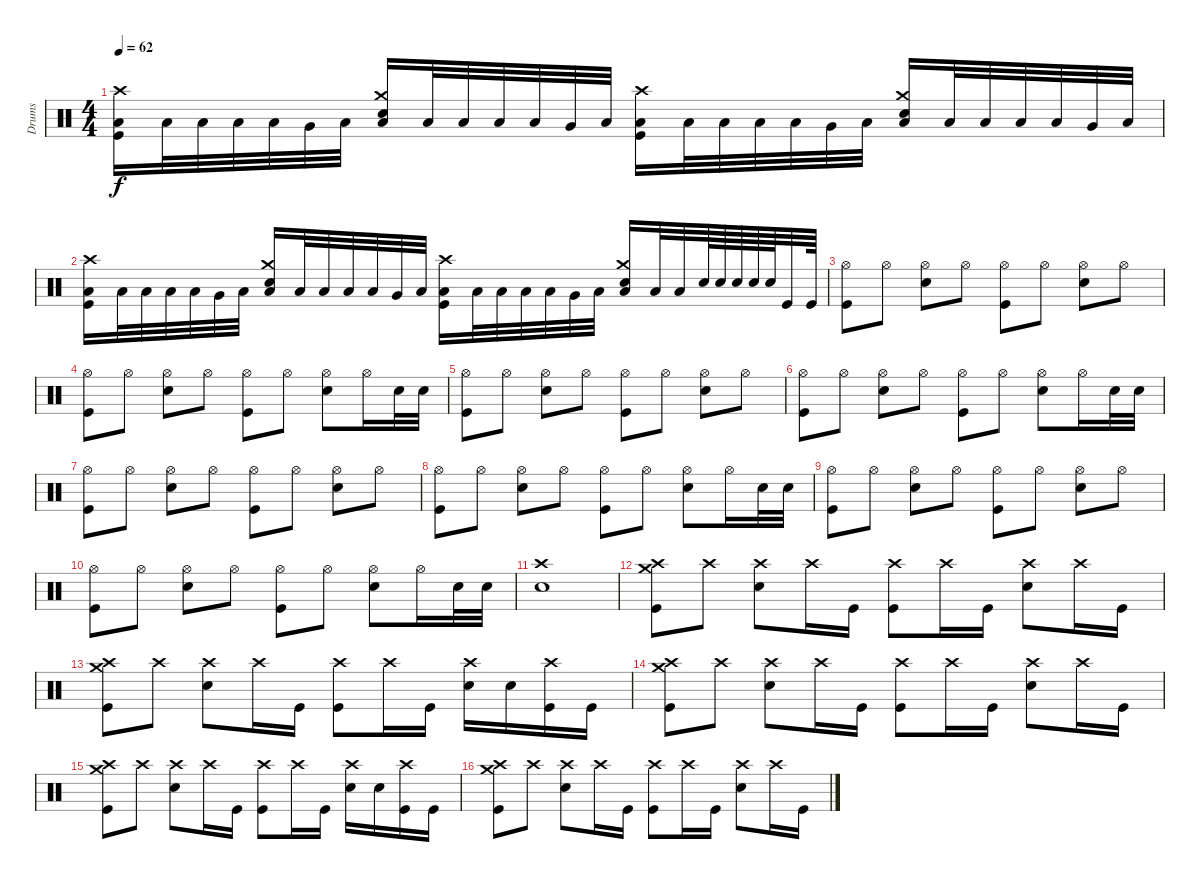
\track ("Drums" "Drums") {instrument percussion}
\staff {score}
\articulation defaults
\ts (4 4)
\tempo 62
\clef neutral
\ks c
("Crash high (hit)" "Low Floor Tom (hit)" "Kick (hit)").16{dy f} "Low Floor Tom (hit)".32 "Low Floor Tom (hit)".32 "Low Tom (hit)".32 "Low Tom (hit)".32 "Very Low Tom (hit)".32 "Low Floor Tom (hit)".32 ("Crash medium (hit)" "Low Floor Tom (hit)" "Snare (hit) 2").16 "Low Floor Tom (hit)".32 "Low Floor Tom (hit)".32 "Low Tom (hit)".32 "Low Tom (hit)".32 "Very Low Tom (hit)".32 "Low Floor Tom (hit)".32 ("Crash high (hit)" "Low Floor Tom (hit)" "Kick (hit)").16 "Low Floor Tom (hit)".32 "Low Floor Tom (hit)".32 "Low Tom (hit)".32 "Low Tom (hit)".32 "Very Low Tom (hit)".32 "Low Floor Tom (hit)".32 ("Crash medium (hit)" "Low Floor Tom (hit)" "Snare (hit) 2").16 "Low Floor Tom (hit)".32 "Low Floor Tom (hit)".32 "Low Tom (hit)".32 "Low Tom (hit)".32 "Very Low Tom (hit)".32 "Low Floor Tom (hit)".32 |
("Crash high (hit)" "Low Floor Tom (hit)" "Kick (hit)").16 "Low Floor Tom (hit)".32 "Low Floor Tom (hit)".32 "Low Tom (hit)".32 "Low Tom (hit)".32 "Very Low Tom (hit)".32 "Low Floor Tom (hit)".32 ("Crash medium (hit)" "Low Floor Tom (hit)" "Snare (hit) 2").16 "Low Floor Tom (hit)".32 "Low Floor Tom (hit)".32 "Low Tom (hit)".32 "Low Tom (hit)".32 "Very Low Tom (hit)".32 "Low Floor Tom (hit)".32 ("Crash high (hit)" "Low Floor Tom (hit)" "Kick (hit)").16 "Low Floor Tom (hit)".32 "Low Floor Tom (hit)".32 "Low Tom (hit)".32 "Low Tom (hit)".32 "Very Low Tom (hit)".32 "Low Floor Tom (hit)".32 ("Crash medium (hit)" "Low Floor Tom (hit)" "Snare (hit) 2").16 "Low Floor Tom (hit)".32 "Low Tom (hit)".32 "Snare (hit) 2".64 "Snare (hit) 2".64 "Snare (hit) 2".64 "Snare (hit) 2".64 "Snare (hit) 2".64 "Kick (hit)".32 "Kick (hit)".64 |
("Hi-Hat (open)" "Kick (hit)").8 "Hi-Hat (open)".8 ("Hi-Hat (open)" "Snare (hit) 2").8 "Hi-Hat (open)".8 ("Hi-Hat (open)" "Kick (hit)").8 "Hi-Hat (open)".8 ("Hi-Hat (open)" "Snare (hit) 2").8 "Hi-Hat (open)".8 |
("Hi-Hat (open)" "Kick (hit)").8 "Hi-Hat (open)".8 ("Hi-Hat (open)" "Snare (hit) 2").8 "Hi-Hat (open)".8 ("Hi-Hat (open)" "Kick (hit)").8 "Hi-Hat (open)".8 ("Hi-Hat (open)" "Snare (hit) 2").8 "Hi-Hat (open)".16 "Snare (hit) 2".32 "Snare (hit) 2".32 |
("Hi-Hat (open)" "Kick (hit)").8 "Hi-Hat (open)".8 ("Hi-Hat (open)" "Snare (hit) 2").8 "Hi-Hat (open)".8 ("Hi-Hat (open)" "Kick (hit)").8 "Hi-Hat (open)".8 ("Hi-Hat (open)" "Snare (hit) 2").8 "Hi-Hat (open)".8 |
("Hi-Hat (open)" "Kick (hit)").8 "Hi-Hat (open)".8 ("Hi-Hat (open)" "Snare (hit) 2").8 "Hi-Hat (open)".8 ("Hi-Hat (open)" "Kick (hit)").8 "Hi-Hat (open)".8 ("Hi-Hat (open)" "Snare (hit) 2").8 "Hi-Hat (open)".16 "Snare (hit) 2".32 "Snare (hit) 2".32 |
("Hi-Hat (open)" "Kick (hit)").8 "Hi-Hat (open)".8 ("Hi-Hat (open)" "Snare (hit) 2").8 "Hi-Hat (open)".8 ("Hi-Hat (open)" "Kick (hit)").8 "Hi-Hat (open)".8 ("Hi-Hat (open)" "Snare (hit) 2").8 "Hi-Hat (open)".8 |
("Hi-Hat (open)" "Kick (hit)").8 "Hi-Hat (open)".8 ("Hi-Hat (open)" "Snare (hit) 2").8 "Hi-Hat (open)".8 ("Hi-Hat (open)" "Kick (hit)").8 "Hi-Hat (open)".8 ("Hi-Hat (open)" "Snare (hit) 2").8 "Hi-Hat (open)".16 "Snare (hit) 2".32 "Snare (hit) 2".32 |
("Hi-Hat (open)" "Kick (hit)").8 "Hi-Hat (open)".8 ("Hi-Hat (open)" "Snare (hit) 2").8 "Hi-Hat (open)".8 ("Hi-Hat (open)" "Kick (hit)").8 "Hi-Hat (open)".8 ("Hi-Hat (open)" "Snare (hit) 2").8 "Hi-Hat (open)".8 |
("Hi-Hat (open)" "Kick (hit)").8 "Hi-Hat (open)".8 ("Hi-Hat (open)" "Snare (hit) 2").8 "Hi-Hat (open)".8 ("Hi-Hat (open)" "Kick (hit)").8 "Hi-Hat (open)".8 ("Hi-Hat (open)" "Snare (hit) 2").8 "Hi-Hat (open)".16 "Snare (hit) 2".32 "Snare (hit) 2".32 |
("Crash high (hit)" "Snare (hit) 2").1 |
("Crash medium (hit)" "Crash high (hit)" "Kick (hit)").8 "Crash high (hit)".8 ("Crash high (hit)" "Snare (hit) 2").8 "Crash high (hit)".16 "Kick (hit)".16 ("Crash high (hit)" "Kick (hit)").8 "Crash high (hit)".16 "Kick (hit)".16 ("Crash high (hit)" "Snare (hit) 2").8 "Crash high (hit)".16 "Kick (hit)".16 |
("Crash medium (hit)" "Crash high (hit)" "Kick (hit)").8 "Crash high (hit)".8 ("Crash high (hit)" "Snare (hit) 2").8 "Crash high (hit)".16 "Kick (hit)".16 ("Crash high (hit)" "Kick (hit)").8 "Crash high (hit)".16 "Kick (hit)".16 ("Crash high (hit)" "Snare (hit) 2").16 "Snare (hit) 2".16 ("Crash high (hit)" "Kick (hit)").16 "Kick (hit)".16 |
("Crash medium (hit)" "Crash high (hit)" "Kick (hit)").8 "Crash high (hit)".8 ("Crash high (hit)" "Snare (hit) 2").8 "Crash high (hit)".16 "Kick (hit)".16 ("Crash high (hit)" "Kick (hit)").8 "Crash high (hit)".16 "Kick (hit)".16 ("Crash high (hit)" "Snare (hit) 2").8 "Crash high (hit)".16 "Kick (hit)".16 |
("Crash medium (hit)" "Crash high (hit)" "Kick (hit)").8 "Crash high (hit)".8 ("Crash high (hit)" "Snare (hit) 2").8 "Crash high (hit)".16 "Kick (hit)".16 ("Crash high (hit)" "Kick (hit)").8 "Crash high (hit)".16 "Kick (hit)".16 ("Crash high (hit)" "Snare (hit) 2").16 "Snare (hit) 2".16 ("Crash high (hit)" "Kick (hit)").16 "Kick (hit)".16 |
("Crash medium (hit)" "Crash high (hit)" "Kick (hit)").8 "Crash high (hit)".8 ("Crash high (hit)" "Snare (hit) 2").8 "Crash high (hit)".16 "Kick (hit)".16 ("Crash high (hit)" "Kick (hit)").8 "Crash high (hit)".16 "Kick (hit)".16 ("Crash high (hit)" "Snare (hit) 2").8 "Crash high (hit)".16 "Kick (hit)".16
